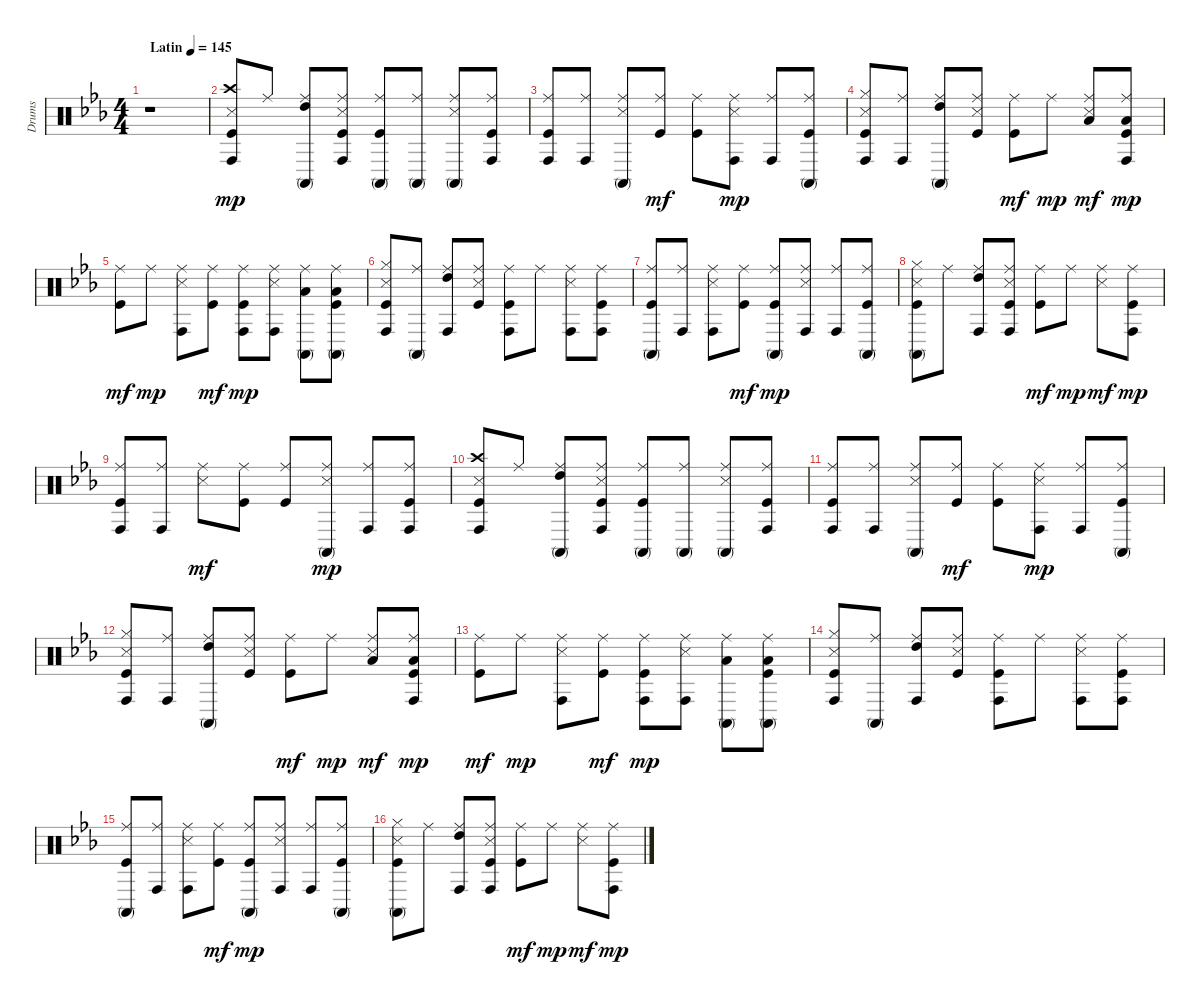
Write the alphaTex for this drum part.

\track ("Drums" "Drums") {instrument percussion}
\staff {score}
\articulation defaults
\ts (4 4)
\tempo (145 "Latin")
\clef neutral
\ks eb
r.1{dy mp} |
("Kick (hit)" "Snare (side stick) 3" "Crash high (hit)" "Conga high (hit)").8 "Ride (middle)".8 ("High Tom (hit)" "Ride (middle)" "Conga high (mute)").8 ("Kick (hit)" "Snare (side stick) 3" "Ride (middle)" "Conga high (hit)").8 ("Kick (hit)" "Ride (middle)" "Conga high (mute)").8 ("Ride (middle)" "Conga high (mute)").8 ("Snare (side stick) 3" "Ride (middle)" "Conga high (mute)").8 ("Kick (hit)" "Ride (middle)" "Conga high (hit)").8 |
("Kick (hit)" "Ride (middle)" "Conga high (hit)").8 ("Ride (middle)" "Conga high (hit)").8 ("Snare (side stick) 3" "Ride (middle)" "Conga high (mute)").8 ("Kick (hit)" "Ride (middle)").8{dy mf} ("Kick (hit)" "Ride (middle)").8 ("Snare (side stick) 3" "Ride (middle)" "Conga high (hit)").8{dy mp} ("Ride (middle)" "Conga high (hit)").8 ("Kick (hit)" "Ride (middle)" "Conga high (mute)").8 |
("Kick (hit)" "Snare (side stick) 3" "Hi-Hat (closed)" "Conga high (hit)").8 ("Ride (middle)" "Conga high (hit)").8 ("High Tom (hit)" "Ride (middle)" "Conga high (mute)").8 ("Kick (hit)" "Snare (side stick) 3" "Ride (middle)").8 ("Kick (hit)" "Ride (middle)").8{dy mf} "Ride (middle)".8{dy mp} ("Snare (side stick) 3" "Low Tom (hit)" "Ride (middle)").8{dy mf} ("Kick (hit)" "Low Tom (hit)" "Ride (middle)" "Conga high (hit)").8{dy mp} |
("Kick (hit)" "Ride (middle)").8{dy mf} "Ride (middle)".8{dy mp} ("Snare (side stick) 3" "Ride (middle)" "Conga high (hit)").8 ("Kick (hit)" "Ride (middle)").8{dy mf} ("Kick (hit)" "Ride (middle)" "Conga high (hit)").8{dy mp} ("Snare (side stick) 3" "Ride (middle)" "Conga high (hit)").8 ("Low Tom (hit)" "Ride (middle)" "Conga high (mute)").8 ("Kick (hit)" "Low Tom (hit)" "Ride (middle)" "Conga high (mute)").8 |
("Kick (hit)" "Snare (side stick) 3" "Hi-Hat (closed)" "Conga high (hit)").8 ("Ride (middle)" "Conga high (mute)").8 ("High Tom (hit)" "Ride (middle)" "Conga high (hit)").8 ("Kick (hit)" "Snare (side stick) 3" "Ride (middle)").8 ("Kick (hit)" "Ride (middle)" "Conga high (hit)").8 "Ride (middle)".8 ("Snare (side stick) 3" "Ride (middle)" "Conga high (hit)").8 ("Kick (hit)" "Ride (middle)" "Conga high (hit)").8 |
("Kick (hit)" "Ride (middle)" "Conga high (mute)").8 ("Ride (middle)" "Conga high (hit)").8 ("Snare (side stick) 3" "Ride (middle)" "Conga high (hit)").8 ("Kick (hit)" "Ride (middle)").8{dy mf} ("Kick (hit)" "Ride (middle)" "Conga high (mute)").8{dy mp} ("Snare (side stick) 3" "Ride (middle)" "Conga high (hit)").8 ("Ride (middle)" "Conga high (hit)").8 ("Kick (hit)" "Ride (middle)" "Conga high (mute)").8 |
("Kick (hit)" "Snare (side stick) 3" "Hi-Hat (closed)" "Conga high (mute)").8 "Ride (middle)".8 ("High Tom (hit)" "Ride (middle)" "Conga high (hit)").8 ("Kick (hit)" "Snare (side stick) 3" "Ride (middle)" "Conga high (hit)").8 ("Kick (hit)" "Ride (middle)").8{dy mf} "Ride (middle)".8{dy mp} ("Snare (side stick) 3" "Ride (middle)").8{dy mf} ("Kick (hit)" "Ride (middle)" "Conga high (hit)").8{dy mp} |
("Kick (hit)" "Ride (middle)" "Conga high (hit)").8 ("Ride (middle)" "Conga high (hit)").8 ("Snare (side stick) 3" "Ride (middle)").8{dy mf} ("Kick (hit)" "Ride (middle)").8 ("Kick (hit)" "Ride (middle)").8 ("Snare (side stick) 3" "Ride (middle)" "Conga high (mute)").8{dy mp} ("Ride (middle)" "Conga high (hit)").8 ("Kick (hit)" "Ride (middle)" "Conga high (hit)").8 |
("Kick (hit)" "Snare (side stick) 3" "Crash high (hit)" "Conga high (hit)").8 "Ride (middle)".8 ("High Tom (hit)" "Ride (middle)" "Conga high (mute)").8 ("Kick (hit)" "Snare (side stick) 3" "Ride (middle)" "Conga high (hit)").8 ("Kick (hit)" "Ride (middle)" "Conga high (mute)").8 ("Ride (middle)" "Conga high (mute)").8 ("Snare (side stick) 3" "Ride (middle)" "Conga high (mute)").8 ("Kick (hit)" "Ride (middle)" "Conga high (hit)").8 |
("Kick (hit)" "Ride (middle)" "Conga high (hit)").8 ("Ride (middle)" "Conga high (hit)").8 ("Snare (side stick) 3" "Ride (middle)" "Conga high (mute)").8 ("Kick (hit)" "Ride (middle)").8{dy mf} ("Kick (hit)" "Ride (middle)").8 ("Snare (side stick) 3" "Ride (middle)" "Conga high (hit)").8{dy mp} ("Ride (middle)" "Conga high (hit)").8 ("Kick (hit)" "Ride (middle)" "Conga high (mute)").8 |
("Kick (hit)" "Snare (side stick) 3" "Hi-Hat (closed)" "Conga high (hit)").8 ("Ride (middle)" "Conga high (hit)").8 ("High Tom (hit)" "Ride (middle)" "Conga high (mute)").8 ("Kick (hit)" "Snare (side stick) 3" "Ride (middle)").8 ("Kick (hit)" "Ride (middle)").8{dy mf} "Ride (middle)".8{dy mp} ("Snare (side stick) 3" "Low Tom (hit)" "Ride (middle)").8{dy mf} ("Kick (hit)" "Low Tom (hit)" "Ride (middle)" "Conga high (hit)").8{dy mp} |
("Kick (hit)" "Ride (middle)").8{dy mf} "Ride (middle)".8{dy mp} ("Snare (side stick) 3" "Ride (middle)" "Conga high (hit)").8 ("Kick (hit)" "Ride (middle)").8{dy mf} ("Kick (hit)" "Ride (middle)" "Conga high (hit)").8{dy mp} ("Snare (side stick) 3" "Ride (middle)" "Conga high (hit)").8 ("Low Tom (hit)" "Ride (middle)" "Conga high (mute)").8 ("Kick (hit)" "Low Tom (hit)" "Ride (middle)" "Conga high (mute)").8 |
("Kick (hit)" "Snare (side stick) 3" "Hi-Hat (closed)" "Conga high (hit)").8 ("Ride (middle)" "Conga high (mute)").8 ("High Tom (hit)" "Ride (middle)" "Conga high (hit)").8 ("Kick (hit)" "Snare (side stick) 3" "Ride (middle)").8 ("Kick (hit)" "Ride (middle)" "Conga high (hit)").8 "Ride (middle)".8 ("Snare (side stick) 3" "Ride (middle)" "Conga high (hit)").8 ("Kick (hit)" "Ride (middle)" "Conga high (hit)").8 |
("Kick (hit)" "Ride (middle)" "Conga high (mute)").8 ("Ride (middle)" "Conga high (hit)").8 ("Snare (side stick) 3" "Ride (middle)" "Conga high (hit)").8 ("Kick (hit)" "Ride (middle)").8{dy mf} ("Kick (hit)" "Ride (middle)" "Conga high (mute)").8{dy mp} ("Snare (side stick) 3" "Ride (middle)" "Conga high (hit)").8 ("Ride (middle)" "Conga high (hit)").8 ("Kick (hit)" "Ride (middle)" "Conga high (mute)").8 |
("Kick (hit)" "Snare (side stick) 3" "Hi-Hat (closed)" "Conga high (mute)").8 "Ride (middle)".8 ("High Tom (hit)" "Ride (middle)" "Conga high (hit)").8 ("Kick (hit)" "Snare (side stick) 3" "Ride (middle)" "Conga high (hit)").8 ("Kick (hit)" "Ride (middle)").8{dy mf} "Ride (middle)".8{dy mp} ("Snare (side stick) 3" "Ride (middle)").8{dy mf} ("Kick (hit)" "Ride (middle)" "Conga high (hit)").8{dy mp}
